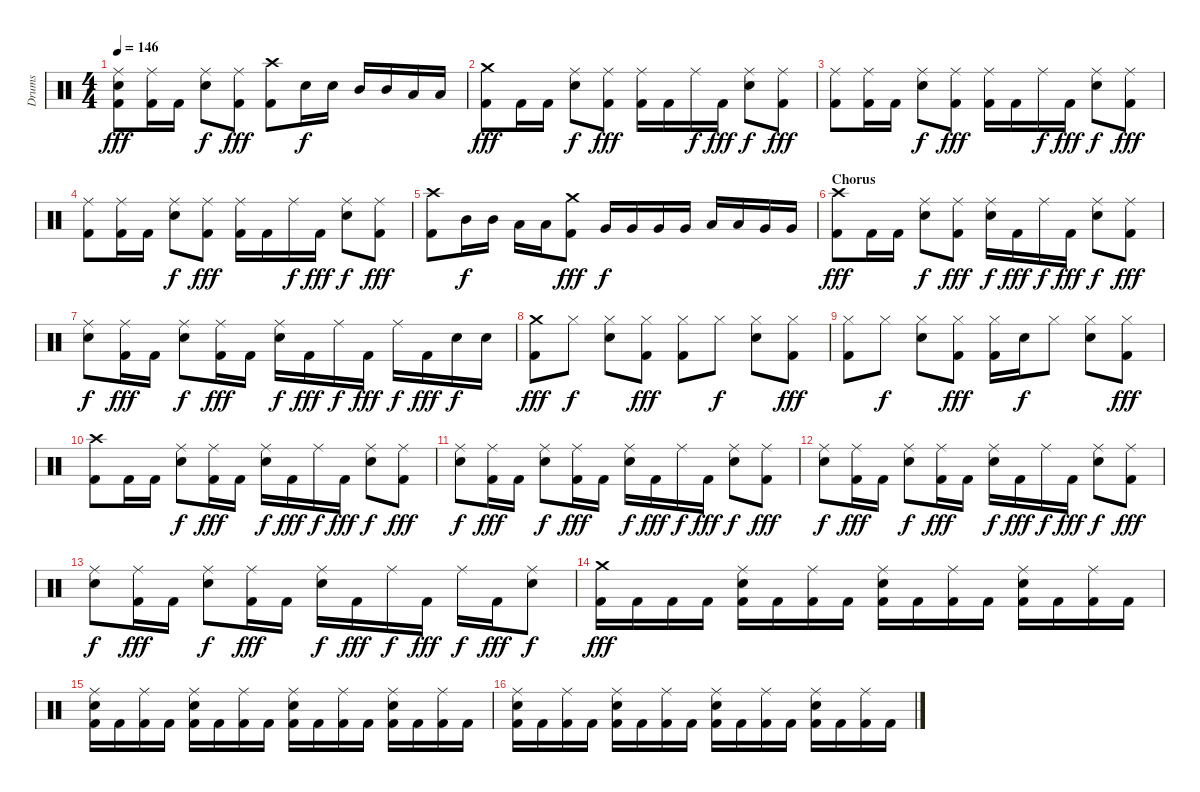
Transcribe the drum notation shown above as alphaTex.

\track ("Drums" "Drums") {instrument percussion}
\staff {score}
\articulation defaults
\ts (4 4)
\tempo 146
\clef neutral
\ks c
("Ride (middle)" "Snare (hit) 2" "Kick (hit) 2").8{dy fff} ("Ride (middle)" "Kick (hit) 2").16 "Kick (hit) 2".16 ("Ride (middle)" "Snare (hit) 2").8{dy f} ("Ride (middle)" "Kick (hit) 2").8{dy fff} ("Crash high (hit)" "Kick (hit) 2").8 "Snare (hit) 2".16{dy f} "Snare (hit) 2".16 "Mid Tom (hit)".16 "Mid Tom (hit)".16 "Low Tom (hit)".16 "Low Tom (hit)".16 |
("Crash medium (hit)" "Kick (hit) 2").8{dy fff} "Kick (hit) 2".16 "Kick (hit) 2".16 ("Ride (middle)" "Snare (hit) 2").8{dy f} ("Ride (middle)" "Kick (hit) 2").8{dy fff} ("Ride (middle)" "Kick (hit) 2").16 "Kick (hit) 2".16 "Ride (middle)".16{dy f} "Kick (hit) 2".16{dy fff} ("Ride (middle)" "Snare (hit) 2").8{dy f} ("Ride (middle)" "Kick (hit) 2").8{dy fff} |
("Ride (middle)" "Kick (hit) 2").8 ("Ride (middle)" "Kick (hit) 2").16 "Kick (hit) 2".16 ("Ride (middle)" "Snare (hit) 2").8{dy f} ("Ride (middle)" "Kick (hit) 2").8{dy fff} ("Ride (middle)" "Kick (hit) 2").16 "Kick (hit) 2".16 "Ride (middle)".16{dy f} "Kick (hit) 2".16{dy fff} ("Ride (middle)" "Snare (hit) 2").8{dy f} ("Ride (middle)" "Kick (hit) 2").8{dy fff} |
("Ride (middle)" "Kick (hit) 2").8 ("Ride (middle)" "Kick (hit) 2").16 "Kick (hit) 2".16 ("Ride (middle)" "Snare (hit) 2").8{dy f} ("Ride (middle)" "Kick (hit) 2").8{dy fff} ("Ride (middle)" "Kick (hit) 2").16 "Kick (hit) 2".16 "Ride (middle)".16{dy f} "Kick (hit) 2".16{dy fff} ("Ride (middle)" "Snare (hit) 2").8{dy f} ("Ride (middle)" "Kick (hit) 2").8{dy fff} |
("Crash high (hit)" "Kick (hit) 2").8 "Mid Tom (hit)".16{dy f} "Mid Tom (hit)".16 "Low Tom (hit)".16 "Low Tom (hit)".16 ("Crash medium (hit)" "Kick (hit) 2").8{dy fff} "Very Low Tom (hit)".16{dy f} "Very Low Tom (hit)".16 "Very Low Tom (hit)".16 "Very Low Tom (hit)".16 "Low Tom (hit)".16 "Low Tom (hit)".16 "Very Low Tom (hit)".16 "Very Low Tom (hit)".16 |
\section ("" "Chorus")
("Crash high (hit)" "Kick (hit) 2").8{dy fff} "Kick (hit) 2".16 "Kick (hit) 2".16 ("Ride (middle)" "Snare (hit) 2").8{dy f} ("Ride (middle)" "Kick (hit) 2").8{dy fff} ("Ride (middle)" "Snare (hit) 2").16{dy f} "Kick (hit) 2".16{dy fff} "Ride (middle)".16{dy f} "Kick (hit) 2".16{dy fff} ("Ride (middle)" "Snare (hit) 2").8{dy f} ("Ride (middle)" "Kick (hit) 2").8{dy fff} |
("Ride (middle)" "Snare (hit) 2").8{dy f} ("Ride (middle)" "Kick (hit) 2").16{dy fff} "Kick (hit) 2".16 ("Ride (middle)" "Snare (hit) 2").8{dy f} ("Ride (middle)" "Kick (hit) 2").16{dy fff} "Kick (hit) 2".16 ("Ride (middle)" "Snare (hit) 2").16{dy f} "Kick (hit) 2".16{dy fff} "Ride (middle)".16{dy f} "Kick (hit) 2".16{dy fff} "Ride (middle)".16{dy f} "Kick (hit) 2".16{dy fff} "Snare (hit) 2".16{dy f} "Snare (hit) 2".16 |
("Crash medium (hit)" "Kick (hit) 2").8{dy fff} "Hi-Hat (closed)".8{dy f} ("Hi-Hat (closed)" "Snare (hit) 2").8 ("Hi-Hat (closed)" "Kick (hit) 2").8{dy fff} ("Hi-Hat (closed)" "Kick (hit) 2").8 "Hi-Hat (closed)".8{dy f} ("Hi-Hat (closed)" "Snare (hit) 2").8 ("Hi-Hat (closed)" "Kick (hit) 2").8{dy fff} |
("Hi-Hat (closed)" "Kick (hit) 2").8 "Hi-Hat (closed)".8{dy f} ("Hi-Hat (closed)" "Snare (hit) 2").8 ("Hi-Hat (closed)" "Kick (hit) 2").8{dy fff} ("Hi-Hat (closed)" "Kick (hit) 2").16 "Snare (hit) 2".16{dy f} "Hi-Hat (closed)".8 ("Hi-Hat (closed)" "Snare (hit) 2").8 ("Hi-Hat (closed)" "Kick (hit) 2").8{dy fff} |
("Crash high (hit)" "Kick (hit) 2").8 "Kick (hit) 2".16 "Kick (hit) 2".16 ("Ride (middle)" "Snare (hit) 2").8{dy f} ("Ride (middle)" "Kick (hit) 2").16{dy fff} "Kick (hit) 2".16 ("Ride (middle)" "Snare (hit) 2").16{dy f} "Kick (hit) 2".16{dy fff} "Ride (middle)".16{dy f} "Kick (hit) 2".16{dy fff} ("Ride (middle)" "Snare (hit) 2").8{dy f} ("Ride (middle)" "Kick (hit) 2").8{dy fff} |
("Ride (middle)" "Snare (hit) 2").8{dy f} ("Ride (middle)" "Kick (hit) 2").16{dy fff} "Kick (hit) 2".16 ("Ride (middle)" "Snare (hit) 2").8{dy f} ("Ride (middle)" "Kick (hit) 2").16{dy fff} "Kick (hit) 2".16 ("Ride (middle)" "Snare (hit) 2").16{dy f} "Kick (hit) 2".16{dy fff} "Ride (middle)".16{dy f} "Kick (hit) 2".16{dy fff} ("Ride (middle)" "Snare (hit) 2").8{dy f} ("Ride (middle)" "Kick (hit) 2").8{dy fff} |
("Ride (middle)" "Snare (hit) 2").8{dy f} ("Ride (middle)" "Kick (hit) 2").16{dy fff} "Kick (hit) 2".16 ("Ride (middle)" "Snare (hit) 2").8{dy f} ("Ride (middle)" "Kick (hit) 2").16{dy fff} "Kick (hit) 2".16 ("Ride (middle)" "Snare (hit) 2").16{dy f} "Kick (hit) 2".16{dy fff} "Ride (middle)".16{dy f} "Kick (hit) 2".16{dy fff} ("Ride (middle)" "Snare (hit) 2").8{dy f} ("Ride (middle)" "Kick (hit) 2").8{dy fff} |
("Ride (middle)" "Snare (hit) 2").8{dy f} ("Ride (middle)" "Kick (hit) 2").16{dy fff} "Kick (hit) 2".16 ("Ride (middle)" "Snare (hit) 2").8{dy f} ("Ride (middle)" "Kick (hit) 2").16{dy fff} "Kick (hit) 2".16 ("Ride (middle)" "Snare (hit) 2").16{dy f} "Kick (hit) 2".16{dy fff} "Ride (middle)".16{dy f} "Kick (hit) 2".16{dy fff} "Ride (middle)".16{dy f} "Kick (hit) 2".16{dy fff} ("Ride (middle)" "Snare (hit) 2").8{dy f} |
("Crash medium (hit)" "Kick (hit) 2").16{dy fff} "Kick (hit) 2".16 "Kick (hit) 2".16 "Kick (hit) 2".16 ("Ride (middle)" "Snare (hit) 2" "Kick (hit) 2").16 "Kick (hit) 2".16 ("Ride (middle)" "Kick (hit) 2").16 "Kick (hit) 2".16 ("Ride (middle)" "Snare (hit) 2" "Kick (hit) 2").16 "Kick (hit) 2".16 ("Ride (middle)" "Kick (hit) 2").16 "Kick (hit) 2".16 ("Ride (middle)" "Snare (hit) 2" "Kick (hit) 2").16 "Kick (hit) 2".16 ("Ride (middle)" "Kick (hit) 2").16 "Kick (hit) 2".16 |
("Ride (middle)" "Snare (hit) 2" "Kick (hit) 2").16 "Kick (hit) 2".16 ("Ride (middle)" "Kick (hit) 2").16 "Kick (hit) 2".16 ("Ride (middle)" "Snare (hit) 2" "Kick (hit) 2").16 "Kick (hit) 2".16 ("Ride (middle)" "Kick (hit) 2").16 "Kick (hit) 2".16 ("Ride (middle)" "Snare (hit) 2" "Kick (hit) 2").16 "Kick (hit) 2".16 ("Ride (middle)" "Kick (hit) 2").16 "Kick (hit) 2".16 ("Ride (middle)" "Snare (hit) 2" "Kick (hit) 2").16 "Kick (hit) 2".16 ("Ride (middle)" "Kick (hit) 2").16 "Kick (hit) 2".16 |
("Ride (middle)" "Snare (hit) 2" "Kick (hit) 2").16 "Kick (hit) 2".16 ("Ride (middle)" "Kick (hit) 2").16 "Kick (hit) 2".16 ("Ride (middle)" "Snare (hit) 2" "Kick (hit) 2").16 "Kick (hit) 2".16 ("Ride (middle)" "Kick (hit) 2").16 "Kick (hit) 2".16 ("Ride (middle)" "Snare (hit) 2" "Kick (hit) 2").16 "Kick (hit) 2".16 ("Ride (middle)" "Kick (hit) 2").16 "Kick (hit) 2".16 ("Ride (middle)" "Snare (hit) 2" "Kick (hit) 2").16 "Kick (hit) 2".16 ("Ride (middle)" "Kick (hit) 2").16 "Kick (hit) 2".16
